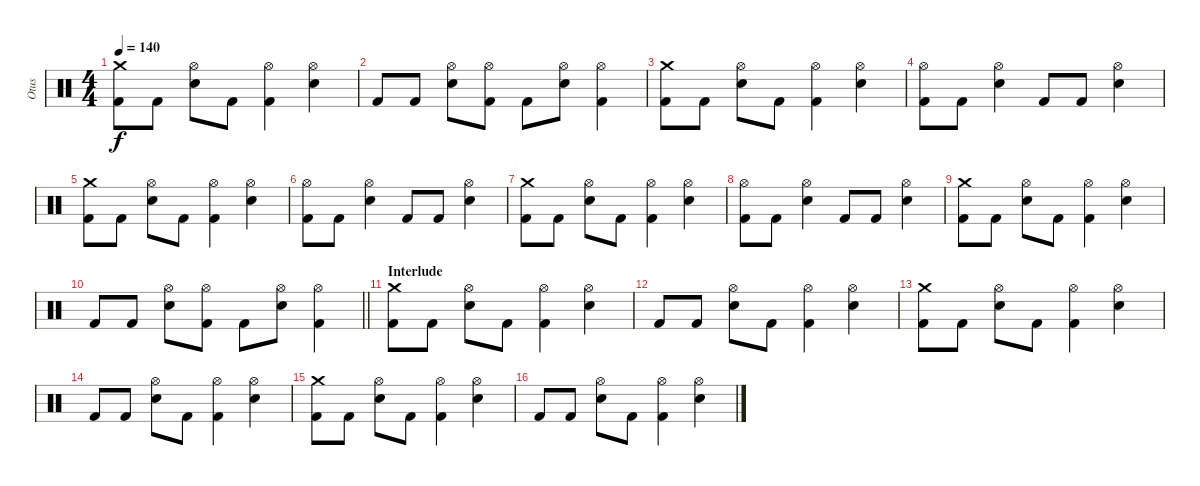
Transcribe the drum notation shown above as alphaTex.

\track ("Otus" "Otus") {instrument percussion}
\staff {score}
\articulation defaults
\ts (4 4)
\tempo 140
\clef neutral
\ks c
("Crash medium (hit)" "Kick (hit) 2").8{dy f} "Kick (hit) 2".8 ("Hi-Hat (open)" "Electric Snare (hit)").8 "Kick (hit) 2".8 ("Hi-Hat (open)" "Kick (hit) 2").4 ("Hi-Hat (open)" "Electric Snare (hit)").4 |
"Kick (hit) 2".8 "Kick (hit) 2".8 ("Hi-Hat (open)" "Electric Snare (hit)").8 ("Hi-Hat (open)" "Kick (hit) 2").8 "Kick (hit) 2".8 ("Hi-Hat (open)" "Electric Snare (hit)").8 ("Hi-Hat (open)" "Kick (hit) 2").4 |
("Crash medium (hit)" "Kick (hit) 2").8 "Kick (hit) 2".8 ("Hi-Hat (open)" "Electric Snare (hit)").8 "Kick (hit) 2".8 ("Hi-Hat (open)" "Kick (hit) 2").4 ("Hi-Hat (open)" "Electric Snare (hit)").4 |
("Hi-Hat (open)" "Kick (hit) 2").8 "Kick (hit) 2".8 ("Hi-Hat (open)" "Electric Snare (hit)").4 "Kick (hit) 2".8 "Kick (hit) 2".8 ("Hi-Hat (open)" "Electric Snare (hit)").4 |
("Crash medium (hit)" "Kick (hit) 2").8 "Kick (hit) 2".8 ("Hi-Hat (open)" "Electric Snare (hit)").8 "Kick (hit) 2".8 ("Hi-Hat (open)" "Kick (hit) 2").4 ("Hi-Hat (open)" "Electric Snare (hit)").4 |
("Hi-Hat (open)" "Kick (hit) 2").8 "Kick (hit) 2".8 ("Hi-Hat (open)" "Electric Snare (hit)").4 "Kick (hit) 2".8 "Kick (hit) 2".8 ("Hi-Hat (open)" "Electric Snare (hit)").4 |
("Crash medium (hit)" "Kick (hit) 2").8 "Kick (hit) 2".8 ("Hi-Hat (open)" "Electric Snare (hit)").8 "Kick (hit) 2".8 ("Hi-Hat (open)" "Kick (hit) 2").4 ("Hi-Hat (open)" "Electric Snare (hit)").4 |
("Hi-Hat (open)" "Kick (hit) 2").8 "Kick (hit) 2".8 ("Hi-Hat (open)" "Electric Snare (hit)").4 "Kick (hit) 2".8 "Kick (hit) 2".8 ("Hi-Hat (open)" "Electric Snare (hit)").4 |
("Crash medium (hit)" "Kick (hit) 2").8 "Kick (hit) 2".8 ("Hi-Hat (open)" "Electric Snare (hit)").8 "Kick (hit) 2".8 ("Hi-Hat (open)" "Kick (hit) 2").4 ("Hi-Hat (open)" "Electric Snare (hit)").4 |
\barLineRight lightlight "Kick (hit) 2".8 "Kick (hit) 2".8
("Hi-Hat (open)" "Electric Snare (hit)").8 ("Hi-Hat (open)" "Kick (hit) 2").8 "Kick (hit) 2".8 ("Hi-Hat (open)" "Electric Snare (hit)").8 ("Hi-Hat (open)" "Kick (hit) 2").4 |
\section ("" "Interlude")
("Crash medium (hit)" "Kick (hit) 2").8 "Kick (hit) 2".8 ("Hi-Hat (open)" "Electric Snare (hit)").8 "Kick (hit) 2".8 ("Hi-Hat (open)" "Kick (hit) 2").4 ("Hi-Hat (open)" "Electric Snare (hit)").4 |
"Kick (hit) 2".8 "Kick (hit) 2".8 ("Hi-Hat (open)" "Electric Snare (hit)").8 "Kick (hit) 2".8 ("Hi-Hat (open)" "Kick (hit) 2").4 ("Hi-Hat (open)" "Electric Snare (hit)").4 |
("Crash medium (hit)" "Kick (hit) 2").8 "Kick (hit) 2".8 ("Hi-Hat (open)" "Electric Snare (hit)").8 "Kick (hit) 2".8 ("Hi-Hat (open)" "Kick (hit) 2").4 ("Hi-Hat (open)" "Electric Snare (hit)").4 |
"Kick (hit) 2".8 "Kick (hit) 2".8 ("Hi-Hat (open)" "Electric Snare (hit)").8 "Kick (hit) 2".8 ("Hi-Hat (open)" "Kick (hit) 2").4 ("Hi-Hat (open)" "Electric Snare (hit)").4 |
("Crash medium (hit)" "Kick (hit) 2").8 "Kick (hit) 2".8 ("Hi-Hat (open)" "Electric Snare (hit)").8 "Kick (hit) 2".8 ("Hi-Hat (open)" "Kick (hit) 2").4 ("Hi-Hat (open)" "Electric Snare (hit)").4 |
"Kick (hit) 2".8 "Kick (hit) 2".8 ("Hi-Hat (open)" "Electric Snare (hit)").8 "Kick (hit) 2".8 ("Hi-Hat (open)" "Kick (hit) 2").4 ("Hi-Hat (open)" "Electric Snare (hit)").4
